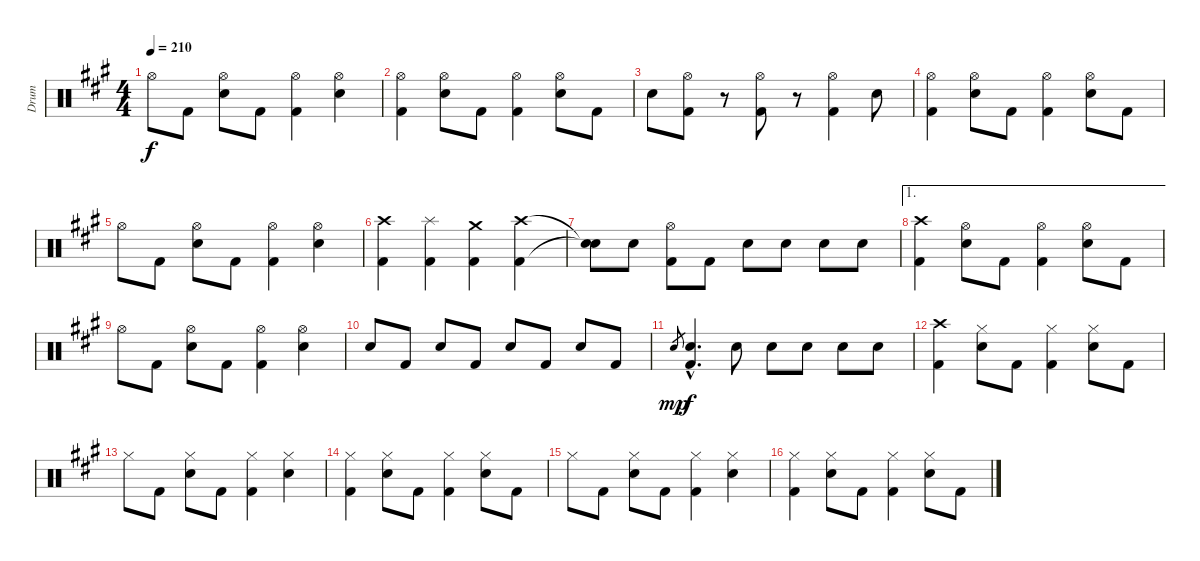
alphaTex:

\track ("Drum" "Drum") {instrument percussion}
\staff {score}
\articulation defaults
\ts (4 4)
\tempo 210
\clef neutral
\ks a "Hi-Hat (open)".8{dy f} "Kick (hit) 2".8
("Hi-Hat (open)" "Electric Snare (hit)").8 "Kick (hit) 2".8 ("Hi-Hat (open)" "Kick (hit) 2").4 ("Hi-Hat (open)" "Electric Snare (hit)").4 |
("Hi-Hat (open)" "Kick (hit) 2").4 ("Hi-Hat (open)" "Electric Snare (hit)").8 "Kick (hit) 2".8 ("Hi-Hat (open)" "Kick (hit) 2").4 ("Hi-Hat (open)" "Electric Snare (hit)").8 "Kick (hit) 2".8 |
"Electric Snare (hit)".8 ("Hi-Hat (open)" "Kick (hit) 2").8 r.8 ("Hi-Hat (open)" "Kick (hit) 2").8 r.8 ("Hi-Hat (open)" "Kick (hit) 2").4 "Electric Snare (hit)".8 |
("Hi-Hat (open)" "Kick (hit) 2").4 ("Hi-Hat (open)" "Electric Snare (hit)").8 "Kick (hit) 2".8 ("Hi-Hat (open)" "Kick (hit) 2").4 ("Hi-Hat (open)" "Electric Snare (hit)").8 "Kick (hit) 2".8 |
"Hi-Hat (open)".8 "Kick (hit) 2".8 ("Hi-Hat (open)" "Electric Snare (hit)").8 "Kick (hit) 2".8 ("Hi-Hat (open)" "Kick (hit) 2").4 ("Hi-Hat (open)" "Electric Snare (hit)").4 |
("Crash high (hit)" "Kick (hit) 2").4 ("Splash (hit)" "Kick (hit) 2").4 ("Crash medium (hit)" "Kick (hit) 2").4 ("Crash high (hit)" "Kick (hit) 2").4 |
("Snare (hit)"{t} "Snare (hit)"{t}).8 "Electric Snare (hit)".8 ("Hi-Hat (open)" "Kick (hit) 2").8 "Kick (hit) 2".8 "Electric Snare (hit)".8 "Electric Snare (hit)".8 "Electric Snare (hit)".8 "Electric Snare (hit)".8 |
\ae 1
("Crash high (hit)" "Kick (hit) 2").4 ("Hi-Hat (open)" "Electric Snare (hit)").8 "Kick (hit) 2".8 ("Hi-Hat (open)" "Kick (hit) 2").4 ("Hi-Hat (open)" "Electric Snare (hit)").8 "Kick (hit) 2".8 |
"Hi-Hat (open)".8 "Kick (hit) 2".8 ("Hi-Hat (open)" "Electric Snare (hit)").8 "Kick (hit) 2".8 ("Hi-Hat (open)" "Kick (hit) 2").4 ("Hi-Hat (open)" "Electric Snare (hit)").4 |
"Electric Snare (hit)".8 "Kick (hit) 2".8 "Electric Snare (hit)".8 "Kick (hit) 2".8 "Electric Snare (hit)".8 "Kick (hit) 2".8 "Electric Snare (hit)".8 "Kick (hit) 2".8 |
"Electric Snare (hit)".8{gr dy mp} ("Electric Snare (hit)"{hac} "Kick (hit) 2"{hac}).4{d dy f} "Electric Snare (hit)".8 "Electric Snare (hit)".8 "Electric Snare (hit)".8 "Electric Snare (hit)".8 "Electric Snare (hit)".8 |
("Crash high (hit)" "Kick (hit) 2").4 ("Hi-Hat (closed)" "Electric Snare (hit)").8 "Kick (hit) 2".8 ("Hi-Hat (closed)" "Kick (hit) 2").4 ("Hi-Hat (closed)" "Electric Snare (hit)").8 "Kick (hit) 2".8 |
"Hi-Hat (closed)".8 "Kick (hit) 2".8 ("Hi-Hat (closed)" "Electric Snare (hit)").8 "Kick (hit) 2".8 ("Hi-Hat (closed)" "Kick (hit) 2").4 ("Hi-Hat (closed)" "Electric Snare (hit)").4 |
("Hi-Hat (closed)" "Kick (hit) 2").4 ("Hi-Hat (closed)" "Electric Snare (hit)").8 "Kick (hit) 2".8 ("Hi-Hat (closed)" "Kick (hit) 2").4 ("Hi-Hat (closed)" "Electric Snare (hit)").8 "Kick (hit) 2".8 |
"Hi-Hat (closed)".8 "Kick (hit) 2".8 ("Hi-Hat (closed)" "Electric Snare (hit)").8 "Kick (hit) 2".8 ("Hi-Hat (closed)" "Kick (hit) 2").4 ("Hi-Hat (closed)" "Electric Snare (hit)").4 |
("Hi-Hat (closed)" "Kick (hit) 2").4 ("Hi-Hat (closed)" "Electric Snare (hit)").8 "Kick (hit) 2".8 ("Hi-Hat (closed)" "Kick (hit) 2").4 ("Hi-Hat (closed)" "Electric Snare (hit)").8 "Kick (hit) 2".8
